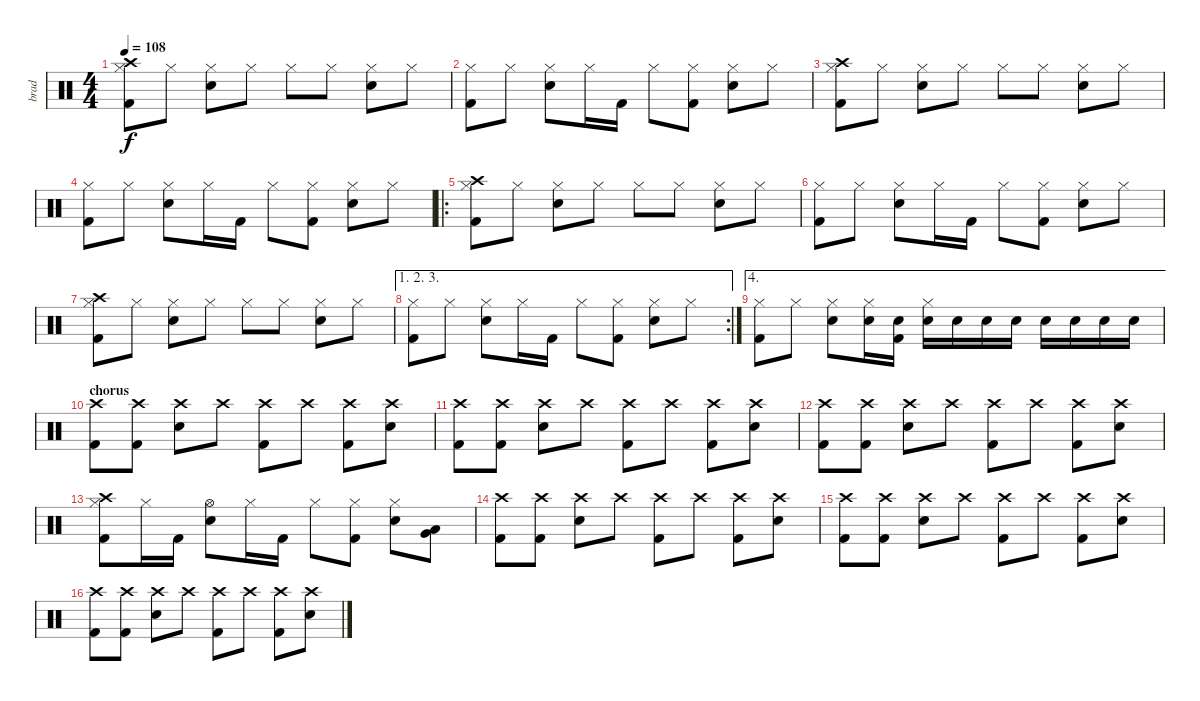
\track ("brad" "brad") {instrument percussion}
\staff {score}
\articulation defaults
\ts (4 4)
\tempo 108
\clef neutral
\ks c
("Crash high (hit)" "Hi-Hat (closed)" "Kick (hit) 2").8{dy f} "Hi-Hat (closed)".8 ("Hi-Hat (closed)" "Electric Snare (hit)").8 "Hi-Hat (closed)".8 "Hi-Hat (closed)".8 "Hi-Hat (closed)".8 ("Hi-Hat (closed)" "Electric Snare (hit)").8 "Hi-Hat (closed)".8 |
("Hi-Hat (closed)" "Kick (hit) 2").8 "Hi-Hat (closed)".8 ("Hi-Hat (closed)" "Electric Snare (hit)").8 "Hi-Hat (closed)".16 "Kick (hit) 2".16 "Hi-Hat (closed)".8 ("Hi-Hat (closed)" "Kick (hit) 2").8 ("Hi-Hat (closed)" "Electric Snare (hit)").8 "Hi-Hat (closed)".8 |
("Crash high (hit)" "Hi-Hat (closed)" "Kick (hit) 2").8 "Hi-Hat (closed)".8 ("Hi-Hat (closed)" "Electric Snare (hit)").8 "Hi-Hat (closed)".8 "Hi-Hat (closed)".8 "Hi-Hat (closed)".8 ("Hi-Hat (closed)" "Electric Snare (hit)").8 "Hi-Hat (closed)".8 |
("Hi-Hat (closed)" "Kick (hit) 2").8 "Hi-Hat (closed)".8 ("Hi-Hat (closed)" "Electric Snare (hit)").8 "Hi-Hat (closed)".16 "Kick (hit) 2".16 "Hi-Hat (closed)".8 ("Hi-Hat (closed)" "Kick (hit) 2").8 ("Hi-Hat (closed)" "Electric Snare (hit)").8 "Hi-Hat (closed)".8 |
\ro
("Crash high (hit)" "Hi-Hat (closed)" "Kick (hit) 2").8 "Hi-Hat (closed)".8 ("Hi-Hat (closed)" "Electric Snare (hit)").8 "Hi-Hat (closed)".8 "Hi-Hat (closed)".8 "Hi-Hat (closed)".8 ("Hi-Hat (closed)" "Electric Snare (hit)").8 "Hi-Hat (closed)".8 |
("Hi-Hat (closed)" "Kick (hit) 2").8 "Hi-Hat (closed)".8 ("Hi-Hat (closed)" "Electric Snare (hit)").8 "Hi-Hat (closed)".16 "Kick (hit) 2".16 "Hi-Hat (closed)".8 ("Hi-Hat (closed)" "Kick (hit) 2").8 ("Hi-Hat (closed)" "Electric Snare (hit)").8 "Hi-Hat (closed)".8 |
("Crash high (hit)" "Hi-Hat (closed)" "Kick (hit) 2").8 "Hi-Hat (closed)".8 ("Hi-Hat (closed)" "Electric Snare (hit)").8 "Hi-Hat (closed)".8 "Hi-Hat (closed)".8 "Hi-Hat (closed)".8 ("Hi-Hat (closed)" "Electric Snare (hit)").8 "Hi-Hat (closed)".8 |
\ae (1 2 3)
\rc 2
("Hi-Hat (closed)" "Kick (hit) 2").8 "Hi-Hat (closed)".8 ("Hi-Hat (closed)" "Electric Snare (hit)").8 "Hi-Hat (closed)".16 "Kick (hit) 2".16 "Hi-Hat (closed)".8 ("Hi-Hat (closed)" "Kick (hit) 2").8 ("Hi-Hat (closed)" "Electric Snare (hit)").8 "Hi-Hat (closed)".8 |
\ae 4
("Hi-Hat (closed)" "Kick (hit) 2").8 "Hi-Hat (closed)".8 ("Hi-Hat (closed)" "Electric Snare (hit)").8 ("Hi-Hat (closed)" "Electric Snare (hit)").16 ("Electric Snare (hit)" "Kick (hit) 2").16 ("Hi-Hat (closed)" "Electric Snare (hit)").16 "Electric Snare (hit)".16 "Electric Snare (hit)".16 "Electric Snare (hit)".16 "Electric Snare (hit)".16 "Electric Snare (hit)".16 "Electric Snare (hit)".16 "Electric Snare (hit)".16 |
\section ("" "chorus")
("Crash high (hit)" "Kick (hit) 2").8 ("Crash high (hit)" "Kick (hit) 2").8 ("Crash high (hit)" "Electric Snare (hit)").8 "Crash high (hit)".8 ("Crash high (hit)" "Kick (hit) 2").8 "Crash high (hit)".8 ("Crash high (hit)" "Kick (hit) 2").8 ("Crash high (hit)" "Electric Snare (hit)").8 |
("Crash high (hit)" "Kick (hit) 2").8 ("Crash high (hit)" "Kick (hit) 2").8 ("Crash high (hit)" "Electric Snare (hit)").8 "Crash high (hit)".8 ("Crash high (hit)" "Kick (hit) 2").8 "Crash high (hit)".8 ("Crash high (hit)" "Kick (hit) 2").8 ("Crash high (hit)" "Electric Snare (hit)").8 |
("Crash high (hit)" "Kick (hit) 2").8 ("Crash high (hit)" "Kick (hit) 2").8 ("Crash high (hit)" "Electric Snare (hit)").8 "Crash high (hit)".8 ("Crash high (hit)" "Kick (hit) 2").8 "Crash high (hit)".8 ("Crash high (hit)" "Kick (hit) 2").8 ("Crash high (hit)" "Electric Snare (hit)").8 |
("Crash high (hit)" "Hi-Hat (closed)" "Kick (hit) 2").8 "Hi-Hat (closed)".16 "Kick (hit) 2".16 ("Hi-Hat (open)" "Electric Snare (hit)").8 "Hi-Hat (closed)".16 "Kick (hit) 2".16 "Hi-Hat (closed)".8 ("Hi-Hat (closed)" "Kick (hit) 2").8 ("Hi-Hat (closed)" "Electric Snare (hit)").8 ("Very Low Tom (hit)" "Low Floor Tom (hit)").8 |
("Crash high (hit)" "Kick (hit) 2").8 ("Crash high (hit)" "Kick (hit) 2").8 ("Crash high (hit)" "Electric Snare (hit)").8 "Crash high (hit)".8 ("Crash high (hit)" "Kick (hit) 2").8 "Crash high (hit)".8 ("Crash high (hit)" "Kick (hit) 2").8 ("Crash high (hit)" "Electric Snare (hit)").8 |
("Crash high (hit)" "Kick (hit) 2").8 ("Crash high (hit)" "Kick (hit) 2").8 ("Crash high (hit)" "Electric Snare (hit)").8 "Crash high (hit)".8 ("Crash high (hit)" "Kick (hit) 2").8 "Crash high (hit)".8 ("Crash high (hit)" "Kick (hit) 2").8 ("Crash high (hit)" "Electric Snare (hit)").8 |
("Crash high (hit)" "Kick (hit) 2").8 ("Crash high (hit)" "Kick (hit) 2").8 ("Crash high (hit)" "Electric Snare (hit)").8 "Crash high (hit)".8 ("Crash high (hit)" "Kick (hit) 2").8 "Crash high (hit)".8 ("Crash high (hit)" "Kick (hit) 2").8 ("Crash high (hit)" "Electric Snare (hit)").8
